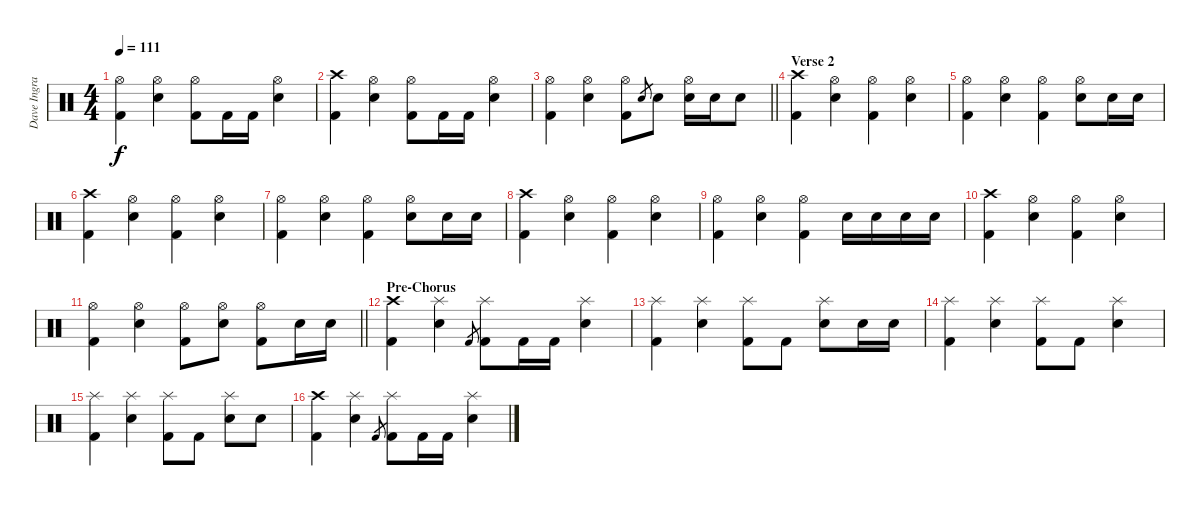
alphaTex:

\track ("Dave Ingraham" "Dave Ingra") {instrument percussion}
\staff {score}
\articulation defaults
\ts (4 4)
\tempo 111
\clef neutral
\ks c
("Hi-Hat (open)" "Kick (hit) 2").4{dy f} ("Hi-Hat (open)" "Electric Snare (hit)").4 ("Hi-Hat (open)" "Kick (hit) 2").8 "Kick (hit) 2".16 "Kick (hit) 2".16 ("Hi-Hat (open)" "Electric Snare (hit)").4 |
("Crash high (hit)" "Kick (hit) 2").4 ("Hi-Hat (open)" "Electric Snare (hit)").4 ("Hi-Hat (open)" "Kick (hit) 2").8 "Kick (hit) 2".16 "Kick (hit) 2".16 ("Hi-Hat (open)" "Electric Snare (hit)").4 |
\barLineRight lightlight
("Hi-Hat (open)" "Kick (hit) 2").4 ("Hi-Hat (open)" "Electric Snare (hit)").4 ("Hi-Hat (open)" "Kick (hit) 2").8 "Electric Snare (hit)".8{gr} "Electric Snare (hit)".8 ("Hi-Hat (open)" "Electric Snare (hit)").16 "Electric Snare (hit)".16 "Electric Snare (hit)".8 |
\section ("" "Verse 2")
("Crash high (hit)" "Kick (hit) 2").4 ("Hi-Hat (open)" "Electric Snare (hit)").4 ("Hi-Hat (open)" "Kick (hit) 2").4 ("Hi-Hat (open)" "Electric Snare (hit)").4 |
("Hi-Hat (open)" "Kick (hit) 2").4 ("Hi-Hat (open)" "Electric Snare (hit)").4 ("Hi-Hat (open)" "Kick (hit) 2").4 ("Hi-Hat (open)" "Electric Snare (hit)").8 "Electric Snare (hit)".16 "Electric Snare (hit)".16 |
("Crash high (hit)" "Kick (hit) 2").4 ("Hi-Hat (open)" "Electric Snare (hit)").4 ("Hi-Hat (open)" "Kick (hit) 2").4 ("Hi-Hat (open)" "Electric Snare (hit)").4 |
("Hi-Hat (open)" "Kick (hit) 2").4 ("Hi-Hat (open)" "Electric Snare (hit)").4 ("Hi-Hat (open)" "Kick (hit) 2").4 ("Hi-Hat (open)" "Electric Snare (hit)").8 "Electric Snare (hit)".16 "Electric Snare (hit)".16 |
("Crash high (hit)" "Kick (hit) 2").4 ("Hi-Hat (open)" "Electric Snare (hit)").4 ("Hi-Hat (open)" "Kick (hit) 2").4 ("Hi-Hat (open)" "Electric Snare (hit)").4 |
("Hi-Hat (open)" "Kick (hit) 2").4 ("Hi-Hat (open)" "Electric Snare (hit)").4 ("Hi-Hat (open)" "Kick (hit) 2").4 "Electric Snare (hit)".16 "Electric Snare (hit)".16 "Electric Snare (hit)".16 "Electric Snare (hit)".16 |
("Crash high (hit)" "Kick (hit) 2").4 ("Hi-Hat (open)" "Electric Snare (hit)").4 ("Hi-Hat (open)" "Kick (hit) 2").4 ("Hi-Hat (open)" "Electric Snare (hit)").4 |
\barLineRight lightlight
("Hi-Hat (open)" "Kick (hit) 2").4 ("Hi-Hat (open)" "Electric Snare (hit)").4 ("Hi-Hat (open)" "Kick (hit) 2").8 ("Hi-Hat (open)" "Electric Snare (hit)").8 ("Hi-Hat (open)" "Kick (hit) 2").8 "Electric Snare (hit)".16 "Electric Snare (hit)".16 |
\section ("" "Pre-Chorus")
("Crash high (hit)" "Kick (hit) 2").4 ("Splash (hit)" "Electric Snare (hit)").4 "Kick (hit) 2".8{gr} ("Splash (hit)" "Kick (hit) 2").8 "Kick (hit) 2".16 "Kick (hit) 2".16 ("Splash (hit)" "Electric Snare (hit)").4 |
("Splash (hit)" "Kick (hit) 2").4 ("Splash (hit)" "Electric Snare (hit)").4 ("Splash (hit)" "Kick (hit) 2").8 "Kick (hit) 2".8 ("Splash (hit)" "Electric Snare (hit)").8 "Electric Snare (hit)".16 "Electric Snare (hit)".16 |
("Splash (hit)" "Kick (hit) 2").4 ("Splash (hit)" "Electric Snare (hit)").4 ("Splash (hit)" "Kick (hit) 2").8 "Kick (hit) 2".8 ("Splash (hit)" "Electric Snare (hit)").4 |
("Splash (hit)" "Kick (hit) 2").4 ("Splash (hit)" "Electric Snare (hit)").4 ("Splash (hit)" "Kick (hit) 2").8 "Kick (hit) 2".8 ("Splash (hit)" "Electric Snare (hit)").8 "Electric Snare (hit)".8 |
("Crash high (hit)" "Kick (hit) 2").4 ("Splash (hit)" "Electric Snare (hit)").4 "Kick (hit) 2".8{gr} ("Splash (hit)" "Kick (hit) 2").8 "Kick (hit) 2".16 "Kick (hit) 2".16 ("Splash (hit)" "Electric Snare (hit)").4
